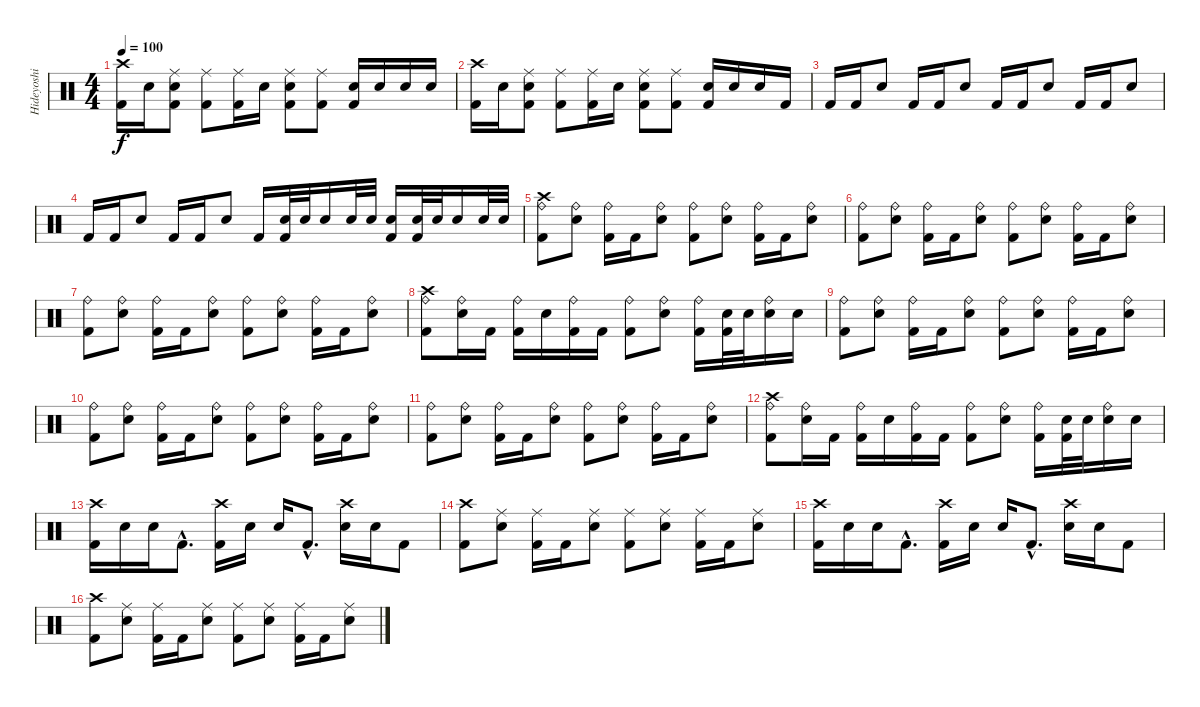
\track ("Hideyoshi" "Hideyoshi") {instrument percussion}
\staff {score}
\articulation defaults
\ts (4 4)
\tempo 100
\clef neutral
\ks c
("Crash high (hit)" "Kick (hit) 2").16{dy f} "Snare (hit) 2".16 ("Snare (hit) 2" "Kick (hit) 2" "Ride (middle)").8 ("Kick (hit) 2" "Ride (middle)").8 ("Kick (hit) 2" "Ride (middle)").16 "Snare (hit) 2".16 ("Ride (middle)" "Snare (hit) 2" "Kick (hit) 2").8 ("Ride (middle)" "Kick (hit) 2").8 ("Kick (hit) 2" "Snare (hit) 2").16 "Snare (hit) 2".16 "Snare (hit) 2".16 "Snare (hit) 2".16 |
("Crash high (hit)" "Kick (hit) 2").16 "Snare (hit) 2".16 ("Snare (hit) 2" "Kick (hit) 2" "Ride (middle)").8 ("Kick (hit) 2" "Ride (middle)").8 ("Kick (hit) 2" "Ride (middle)").16 "Snare (hit) 2".16 ("Ride (middle)" "Snare (hit) 2" "Kick (hit) 2").8 ("Ride (middle)" "Kick (hit) 2").8 ("Kick (hit) 2" "Snare (hit) 2").16 "Snare (hit) 2".16 "Snare (hit) 2".16 "Kick (hit) 2".16 |
"Kick (hit) 2".16 "Kick (hit) 2".16 "Snare (hit) 2".8 "Kick (hit) 2".16 "Kick (hit) 2".16 "Snare (hit) 2".8 "Kick (hit) 2".16 "Kick (hit) 2".16 "Snare (hit) 2".8 "Kick (hit) 2".16 "Kick (hit) 2".16 "Snare (hit) 2".8 |
"Kick (hit) 2".16 "Kick (hit) 2".16 "Snare (hit) 2".8 "Kick (hit) 2".16 "Kick (hit) 2".16 "Snare (hit) 2".8 "Kick (hit) 2".16 ("Snare (hit) 2" "Kick (hit) 2").32 "Snare (hit) 2".32 "Snare (hit) 2".16 "Snare (hit) 2".32 "Snare (hit) 2".32 ("Snare (hit) 2" "Kick (hit) 2").16 ("Snare (hit) 2" "Kick (hit) 2").32 "Snare (hit) 2".32 "Snare (hit) 2".16 "Snare (hit) 2".32 "Snare (hit) 2".32 |
("Crash high (hit)" "Kick (hit) 2" "Ride (bell)").8 ("Snare (hit) 2" "Ride (bell)").8 ("Kick (hit) 2" "Ride (bell)").16 "Kick (hit) 2".16 ("Snare (hit) 2" "Ride (bell)").8 ("Kick (hit) 2" "Ride (bell)").8 ("Snare (hit) 2" "Ride (bell)").8 ("Kick (hit) 2" "Ride (bell)").16 "Kick (hit) 2".16 ("Snare (hit) 2" "Ride (bell)").8 |
("Kick (hit) 2" "Ride (bell)").8 ("Snare (hit) 2" "Ride (bell)").8 ("Kick (hit) 2" "Ride (bell)").16 "Kick (hit) 2".16 ("Snare (hit) 2" "Ride (bell)").8 ("Kick (hit) 2" "Ride (bell)").8 ("Snare (hit) 2" "Ride (bell)").8 ("Kick (hit) 2" "Ride (bell)").16 "Kick (hit) 2".16 ("Snare (hit) 2" "Ride (bell)").8 |
("Kick (hit) 2" "Ride (bell)").8 ("Snare (hit) 2" "Ride (bell)").8 ("Kick (hit) 2" "Ride (bell)").16 "Kick (hit) 2".16 ("Snare (hit) 2" "Ride (bell)").8 ("Kick (hit) 2" "Ride (bell)").8 ("Snare (hit) 2" "Ride (bell)").8 ("Kick (hit) 2" "Ride (bell)").16 "Kick (hit) 2".16 ("Snare (hit) 2" "Ride (bell)").8 |
("Crash high (hit)" "Kick (hit) 2" "Ride (bell)").8 ("Snare (hit) 2" "Ride (bell)").16 "Kick (hit) 2".16 ("Kick (hit) 2" "Ride (bell)").16 "Snare (hit) 2".16 ("Kick (hit) 2" "Ride (bell)").16 "Kick (hit) 2".16 ("Kick (hit) 2" "Ride (bell)").8 ("Snare (hit) 2" "Ride (bell)").8 ("Kick (hit) 2" "Ride (bell)").16 ("Electric Snare (hit)" "Kick (hit) 2").32 "Electric Snare (hit)".32 ("Snare (hit) 2" "Ride (bell)").16 "Snare (hit) 2".16 |
("Kick (hit) 2" "Ride (bell)").8 ("Snare (hit) 2" "Ride (bell)").8 ("Kick (hit) 2" "Ride (bell)").16 "Kick (hit) 2".16 ("Snare (hit) 2" "Ride (bell)").8 ("Kick (hit) 2" "Ride (bell)").8 ("Snare (hit) 2" "Ride (bell)").8 ("Kick (hit) 2" "Ride (bell)").16 "Kick (hit) 2".16 ("Snare (hit) 2" "Ride (bell)").8 |
("Kick (hit) 2" "Ride (bell)").8 ("Snare (hit) 2" "Ride (bell)").8 ("Kick (hit) 2" "Ride (bell)").16 "Kick (hit) 2".16 ("Snare (hit) 2" "Ride (bell)").8 ("Kick (hit) 2" "Ride (bell)").8 ("Snare (hit) 2" "Ride (bell)").8 ("Kick (hit) 2" "Ride (bell)").16 "Kick (hit) 2".16 ("Snare (hit) 2" "Ride (bell)").8 |
("Kick (hit) 2" "Ride (bell)").8 ("Snare (hit) 2" "Ride (bell)").8 ("Kick (hit) 2" "Ride (bell)").16 "Kick (hit) 2".16 ("Snare (hit) 2" "Ride (bell)").8 ("Kick (hit) 2" "Ride (bell)").8 ("Snare (hit) 2" "Ride (bell)").8 ("Kick (hit) 2" "Ride (bell)").16 "Kick (hit) 2".16 ("Snare (hit) 2" "Ride (bell)").8 |
("Crash high (hit)" "Kick (hit) 2" "Ride (bell)").8 ("Snare (hit) 2" "Ride (bell)").16 "Kick (hit) 2".16 ("Kick (hit) 2" "Ride (bell)").16 "Snare (hit) 2".16 ("Kick (hit) 2" "Ride (bell)").16 "Kick (hit) 2".16 ("Kick (hit) 2" "Ride (bell)").8 ("Snare (hit) 2" "Ride (bell)").8 ("Kick (hit) 2" "Ride (bell)").16 ("Electric Snare (hit)" "Kick (hit) 2").32 "Electric Snare (hit)".32 ("Snare (hit) 2" "Ride (bell)").16 "Snare (hit) 2".16 |
("Crash high (hit)" "Kick (hit) 2").16 "Snare (hit) 2".16 "Snare (hit) 2".16 "Kick (hit) 2"{hac}.8{d} ("Crash high (hit)" "Kick (hit) 2").16 "Snare (hit) 2".16 "Snare (hit) 2".16 "Kick (hit) 2"{hac}.8{d} ("Crash high (hit)" "Snare (hit) 2").16 "Snare (hit) 2".16 "Kick (hit) 2".8 |
("Crash high (hit)" "Kick (hit) 2").8 ("Snare (hit) 2" "Ride (middle)").8 ("Kick (hit) 2" "Ride (middle)").16 "Kick (hit) 2".16 ("Snare (hit) 2" "Ride (middle)").8 ("Kick (hit) 2" "Ride (middle)").8 ("Snare (hit) 2" "Ride (middle)").8 ("Kick (hit) 2" "Ride (middle)").16 "Kick (hit) 2".16 ("Snare (hit) 2" "Ride (middle)").8 |
("Crash high (hit)" "Kick (hit) 2").16 "Snare (hit) 2".16 "Snare (hit) 2".16 "Kick (hit) 2"{hac}.8{d} ("Crash high (hit)" "Kick (hit) 2").16 "Snare (hit) 2".16 "Snare (hit) 2".16 "Kick (hit) 2"{hac}.8{d} ("Crash high (hit)" "Snare (hit) 2").16 "Snare (hit) 2".16 "Kick (hit) 2".8 |
("Crash high (hit)" "Kick (hit) 2").8 ("Snare (hit) 2" "Ride (middle)").8 ("Kick (hit) 2" "Ride (middle)").16 "Kick (hit) 2".16 ("Snare (hit) 2" "Ride (middle)").8 ("Kick (hit) 2" "Ride (middle)").8 ("Snare (hit) 2" "Ride (middle)").8 ("Kick (hit) 2" "Ride (middle)").16 "Kick (hit) 2".16 ("Snare (hit) 2" "Ride (middle)").8
